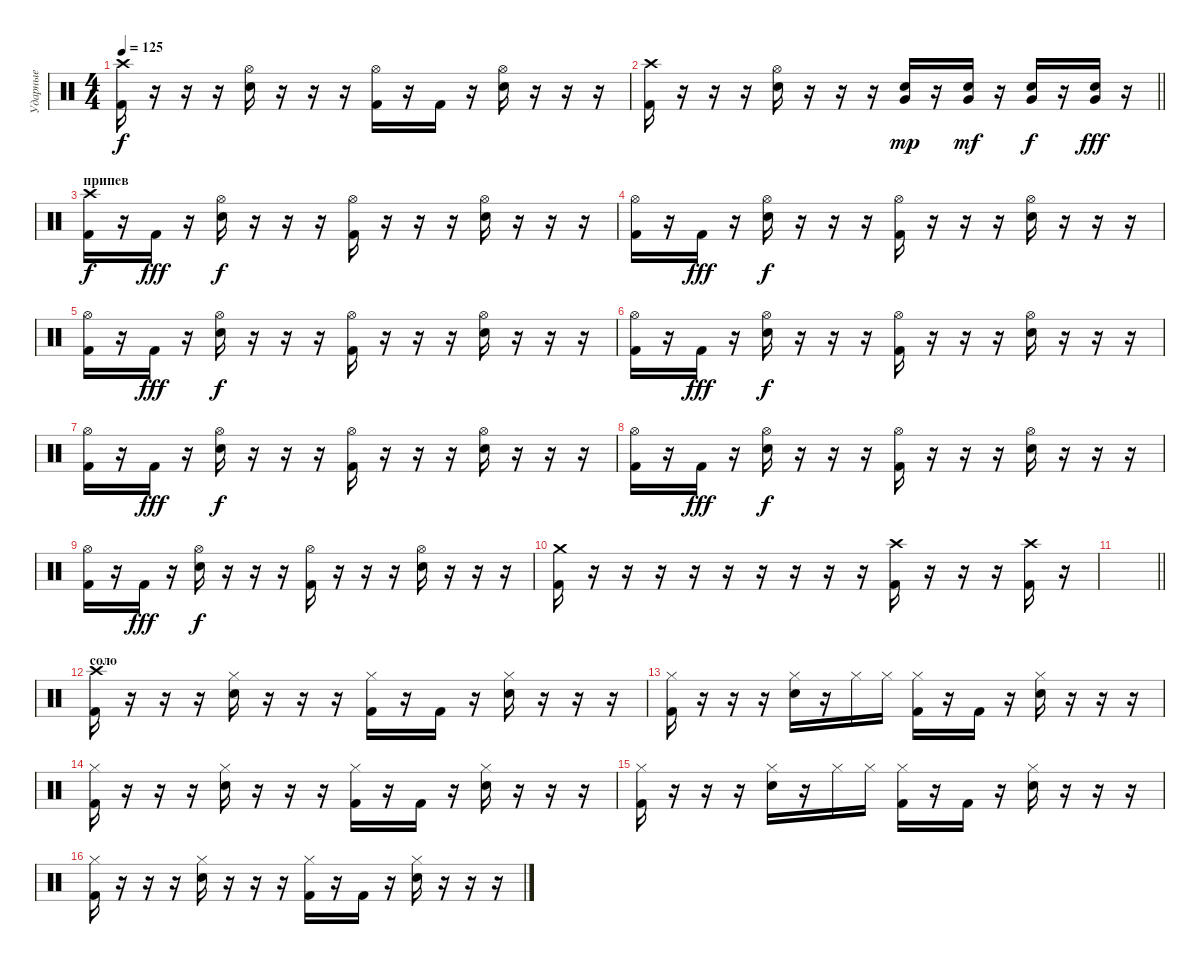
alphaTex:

\track ("Ударные" "Ударные") {instrument percussion}
\staff {score}
\articulation defaults
\ts (4 4)
\tempo 125
\clef neutral
\ks c
("Crash high (hit)" "Kick (hit) 2").16{dy f} r.16 r.16 r.16 ("Hi-Hat (open)" "Electric Snare (hit)").16 r.16 r.16 r.16 ("Hi-Hat (open)" "Kick (hit) 2").16 r.16 "Kick (hit) 2".16 r.16 ("Hi-Hat (open)" "Electric Snare (hit)").16 r.16 r.16 r.16 |
\barLineRight lightlight
("Crash high (hit)" "Kick (hit) 2").16 r.16 r.16 r.16 ("Hi-Hat (open)" "Electric Snare (hit)").16 r.16 r.16 r.16 ("Very Low Tom (hit)" "Electric Snare (hit)").16{dy mp} r.16 ("Very Low Tom (hit)" "Electric Snare (hit)").16{dy mf} r.16 ("Very Low Tom (hit)" "Electric Snare (hit)").16{dy f} r.16 ("Very Low Tom (hit)" "Electric Snare (hit)").16{dy fff} r.16 |
\section ("" "припев")
("Crash high (hit)" "Kick (hit) 2").16{dy f} r.16 "Kick (hit) 2".16{dy fff} r.16 ("Hi-Hat (open)" "Electric Snare (hit)").16{dy f} r.16 r.16 r.16 ("Hi-Hat (open)" "Kick (hit) 2").16 r.16 r.16 r.16 ("Hi-Hat (open)" "Electric Snare (hit)").16 r.16 r.16 r.16 |
("Hi-Hat (open)" "Kick (hit) 2").16 r.16 "Kick (hit) 2".16{dy fff} r.16 ("Hi-Hat (open)" "Electric Snare (hit)").16{dy f} r.16 r.16 r.16 ("Hi-Hat (open)" "Kick (hit) 2").16 r.16 r.16 r.16 ("Hi-Hat (open)" "Electric Snare (hit)").16 r.16 r.16 r.16 |
("Hi-Hat (open)" "Kick (hit) 2").16 r.16 "Kick (hit) 2".16{dy fff} r.16 ("Hi-Hat (open)" "Electric Snare (hit)").16{dy f} r.16 r.16 r.16 ("Hi-Hat (open)" "Kick (hit) 2").16 r.16 r.16 r.16 ("Hi-Hat (open)" "Electric Snare (hit)").16 r.16 r.16 r.16 |
("Hi-Hat (open)" "Kick (hit) 2").16 r.16 "Kick (hit) 2".16{dy fff} r.16 ("Hi-Hat (open)" "Electric Snare (hit)").16{dy f} r.16 r.16 r.16 ("Hi-Hat (open)" "Kick (hit) 2").16 r.16 r.16 r.16 ("Hi-Hat (open)" "Electric Snare (hit)").16 r.16 r.16 r.16 |
("Hi-Hat (open)" "Kick (hit) 2").16 r.16 "Kick (hit) 2".16{dy fff} r.16 ("Hi-Hat (open)" "Electric Snare (hit)").16{dy f} r.16 r.16 r.16 ("Hi-Hat (open)" "Kick (hit) 2").16 r.16 r.16 r.16 ("Hi-Hat (open)" "Electric Snare (hit)").16 r.16 r.16 r.16 |
("Hi-Hat (open)" "Kick (hit) 2").16 r.16 "Kick (hit) 2".16{dy fff} r.16 ("Hi-Hat (open)" "Electric Snare (hit)").16{dy f} r.16 r.16 r.16 ("Hi-Hat (open)" "Kick (hit) 2").16 r.16 r.16 r.16 ("Hi-Hat (open)" "Electric Snare (hit)").16 r.16 r.16 r.16 |
("Hi-Hat (open)" "Kick (hit) 2").16 r.16 "Kick (hit) 2".16{dy fff} r.16 ("Hi-Hat (open)" "Electric Snare (hit)").16{dy f} r.16 r.16 r.16 ("Hi-Hat (open)" "Kick (hit) 2").16 r.16 r.16 r.16 ("Hi-Hat (open)" "Electric Snare (hit)").16 r.16 r.16 r.16 |
("Crash medium (hit)" "Kick (hit) 2").16 r.16 r.16 r.16 r.16 r.16 r.16 r.16 r.16 r.16 ("Crash high (hit)" "Kick (hit) 2").16 r.16 r.16 r.16 ("Crash high (hit)" "Kick (hit) 2").16 r.16 |
\barLineRight lightlight
|
\section ("" "соло")
("Crash high (hit)" "Kick (hit) 2").16 r.16 r.16 r.16 ("Hi-Hat (closed)" "Electric Snare (hit)").16 r.16 r.16 r.16 ("Hi-Hat (closed)" "Kick (hit) 2").16 r.16 "Kick (hit) 2".16 r.16 ("Hi-Hat (closed)" "Electric Snare (hit)").16 r.16 r.16 r.16 |
("Hi-Hat (closed)" "Kick (hit) 2").16 r.16 r.16 r.16 ("Hi-Hat (closed)" "Electric Snare (hit)").16 r.16 "Hi-Hat (closed)".16 "Hi-Hat (closed)".16 ("Hi-Hat (closed)" "Kick (hit) 2").16 r.16 "Kick (hit) 2".16 r.16 ("Hi-Hat (closed)" "Electric Snare (hit)").16 r.16 r.16 r.16 |
("Hi-Hat (closed)" "Kick (hit) 2").16 r.16 r.16 r.16 ("Hi-Hat (closed)" "Electric Snare (hit)").16 r.16 r.16 r.16 ("Hi-Hat (closed)" "Kick (hit) 2").16 r.16 "Kick (hit) 2".16 r.16 ("Hi-Hat (closed)" "Electric Snare (hit)").16 r.16 r.16 r.16 |
("Hi-Hat (closed)" "Kick (hit) 2").16 r.16 r.16 r.16 ("Hi-Hat (closed)" "Electric Snare (hit)").16 r.16 "Hi-Hat (closed)".16 "Hi-Hat (closed)".16 ("Hi-Hat (closed)" "Kick (hit) 2").16 r.16 "Kick (hit) 2".16 r.16 ("Hi-Hat (closed)" "Electric Snare (hit)").16 r.16 r.16 r.16 |
("Hi-Hat (closed)" "Kick (hit) 2").16 r.16 r.16 r.16 ("Hi-Hat (closed)" "Electric Snare (hit)").16 r.16 r.16 r.16 ("Hi-Hat (closed)" "Kick (hit) 2").16 r.16 "Kick (hit) 2".16 r.16 ("Hi-Hat (closed)" "Electric Snare (hit)").16 r.16 r.16 r.16
